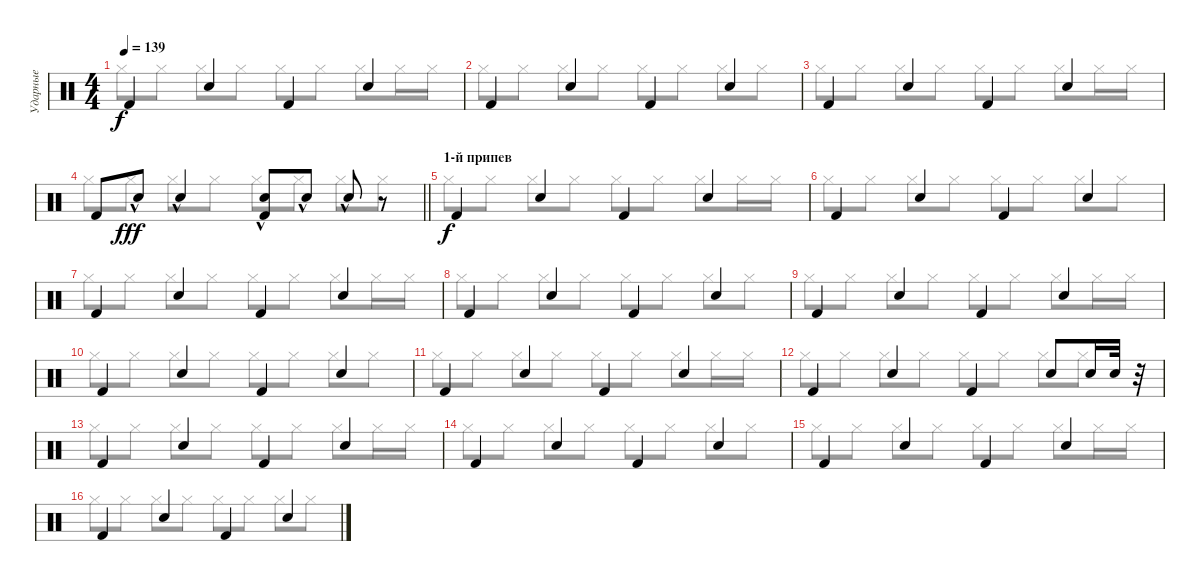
\track ("Ударные" "Ударные") {instrument percussion}
\staff {score}
\articulation defaults
\voice
\ts (4 4)
\tempo 139
\clef neutral
\ks c "Kick (hit) 2".4{dy f} "Snare (hit) 2".4 "Kick (hit) 2".4 "Snare (hit) 2".4
|
"Kick (hit) 2".4 "Snare (hit) 2".4 "Kick (hit) 2".4 "Snare (hit) 2".4 |
"Kick (hit) 2".4 "Snare (hit) 2".4 "Kick (hit) 2".4 "Snare (hit) 2".4 |
\barLineRight lightlight "Kick (hit) 2".8 "Snare (hit) 2"{hac}.8{dy fff} "Snare (hit) 2"{hac}.4
("Kick (hit) 2" "Snare (hit) 2"{hac}).8 "Snare (hit) 2"{hac}.8 "Snare (hit) 2"{hac}.8 r.8 |
\section ("" "1-й припев")
"Kick (hit) 2".4{dy f} "Snare (hit) 2".4 "Kick (hit) 2".4 "Snare (hit) 2".4 |
"Kick (hit) 2".4 "Snare (hit) 2".4 "Kick (hit) 2".4 "Snare (hit) 2".4 |
"Kick (hit) 2".4 "Snare (hit) 2".4 "Kick (hit) 2".4 "Snare (hit) 2".4 |
"Kick (hit) 2".4 "Snare (hit) 2".4 "Kick (hit) 2".4 "Snare (hit) 2".4 |
"Kick (hit) 2".4 "Snare (hit) 2".4 "Kick (hit) 2".4 "Snare (hit) 2".4 |
"Kick (hit) 2".4 "Snare (hit) 2".4 "Kick (hit) 2".4 "Snare (hit) 2".4 |
"Kick (hit) 2".4 "Snare (hit) 2".4 "Kick (hit) 2".4 "Snare (hit) 2".4 |
"Kick (hit) 2".4 "Snare (hit) 2".4 "Kick (hit) 2".4 "Snare (hit) 2".8 "Snare (hit) 2".16 "Snare (hit) 2".32 r.32 |
"Kick (hit) 2".4 "Snare (hit) 2".4 "Kick (hit) 2".4 "Snare (hit) 2".4 |
"Kick (hit) 2".4 "Snare (hit) 2".4 "Kick (hit) 2".4 "Snare (hit) 2".4 |
"Kick (hit) 2".4 "Snare (hit) 2".4 "Kick (hit) 2".4 "Snare (hit) 2".4 |
"Kick (hit) 2".4 "Snare (hit) 2".4 "Kick (hit) 2".4 "Snare (hit) 2".4
\voice
\clef neutral
\ottava regular
\simile none
\ks c "Hi-Hat (closed)".8{dy f} "Hi-Hat (closed)".8 "Hi-Hat (closed)".8 "Hi-Hat (closed)".8 "Hi-Hat (closed)".8 "Hi-Hat (closed)".8 "Hi-Hat (closed)".8 "Hi-Hat (closed)".16 "Hi-Hat (closed)".16
|
"Hi-Hat (closed)".8 "Hi-Hat (closed)".8 "Hi-Hat (closed)".8 "Hi-Hat (closed)".8 "Hi-Hat (closed)".8 "Hi-Hat (closed)".8 "Hi-Hat (closed)".8 "Hi-Hat (closed)".8 |
"Hi-Hat (closed)".8 "Hi-Hat (closed)".8 "Hi-Hat (closed)".8 "Hi-Hat (closed)".8 "Hi-Hat (closed)".8 "Hi-Hat (closed)".8 "Hi-Hat (closed)".8 "Hi-Hat (closed)".16 "Hi-Hat (closed)".16 |
\barLineRight lightlight "Hi-Hat (closed)".8 "Hi-Hat (closed)".8 "Hi-Hat (closed)".8 "Hi-Hat (closed)".8 "Hi-Hat (closed)".8 "Hi-Hat (closed)".8 "Hi-Hat (closed)".8 "Hi-Hat (closed)".8
|
"Hi-Hat (closed)".8 "Hi-Hat (closed)".8 "Hi-Hat (closed)".8 "Hi-Hat (closed)".8 "Hi-Hat (closed)".8 "Hi-Hat (closed)".8 "Hi-Hat (closed)".8 "Hi-Hat (closed)".16 "Hi-Hat (closed)".16 |
"Hi-Hat (closed)".8 "Hi-Hat (closed)".8 "Hi-Hat (closed)".8 "Hi-Hat (closed)".8 "Hi-Hat (closed)".8 "Hi-Hat (closed)".8 "Hi-Hat (closed)".8 "Hi-Hat (closed)".8 |
"Hi-Hat (closed)".8 "Hi-Hat (closed)".8 "Hi-Hat (closed)".8 "Hi-Hat (closed)".8 "Hi-Hat (closed)".8 "Hi-Hat (closed)".8 "Hi-Hat (closed)".8 "Hi-Hat (closed)".16 "Hi-Hat (closed)".16 |
"Hi-Hat (closed)".8 "Hi-Hat (closed)".8 "Hi-Hat (closed)".8 "Hi-Hat (closed)".8 "Hi-Hat (closed)".8 "Hi-Hat (closed)".8 "Hi-Hat (closed)".8 "Hi-Hat (closed)".8 |
"Hi-Hat (closed)".8 "Hi-Hat (closed)".8 "Hi-Hat (closed)".8 "Hi-Hat (closed)".8 "Hi-Hat (closed)".8 "Hi-Hat (closed)".8 "Hi-Hat (closed)".8 "Hi-Hat (closed)".16 "Hi-Hat (closed)".16 |
"Hi-Hat (closed)".8 "Hi-Hat (closed)".8 "Hi-Hat (closed)".8 "Hi-Hat (closed)".8 "Hi-Hat (closed)".8 "Hi-Hat (closed)".8 "Hi-Hat (closed)".8 "Hi-Hat (closed)".8 |
"Hi-Hat (closed)".8 "Hi-Hat (closed)".8 "Hi-Hat (closed)".8 "Hi-Hat (closed)".8 "Hi-Hat (closed)".8 "Hi-Hat (closed)".8 "Hi-Hat (closed)".8 "Hi-Hat (closed)".16 "Hi-Hat (closed)".16 |
"Hi-Hat (closed)".8 "Hi-Hat (closed)".8 "Hi-Hat (closed)".8 "Hi-Hat (closed)".8 "Hi-Hat (closed)".8 "Hi-Hat (closed)".8 "Hi-Hat (closed)".8 "Hi-Hat (closed)".8 |
"Hi-Hat (closed)".8 "Hi-Hat (closed)".8 "Hi-Hat (closed)".8 "Hi-Hat (closed)".8 "Hi-Hat (closed)".8 "Hi-Hat (closed)".8 "Hi-Hat (closed)".8 "Hi-Hat (closed)".16 "Hi-Hat (closed)".16 |
"Hi-Hat (closed)".8 "Hi-Hat (closed)".8 "Hi-Hat (closed)".8 "Hi-Hat (closed)".8 "Hi-Hat (closed)".8 "Hi-Hat (closed)".8 "Hi-Hat (closed)".8 "Hi-Hat (closed)".8 |
"Hi-Hat (closed)".8 "Hi-Hat (closed)".8 "Hi-Hat (closed)".8 "Hi-Hat (closed)".8 "Hi-Hat (closed)".8 "Hi-Hat (closed)".8 "Hi-Hat (closed)".8 "Hi-Hat (closed)".16 "Hi-Hat (closed)".16 |
"Hi-Hat (closed)".8 "Hi-Hat (closed)".8 "Hi-Hat (closed)".8 "Hi-Hat (closed)".8 "Hi-Hat (closed)".8 "Hi-Hat (closed)".8 "Hi-Hat (closed)".8 "Hi-Hat (closed)".8
